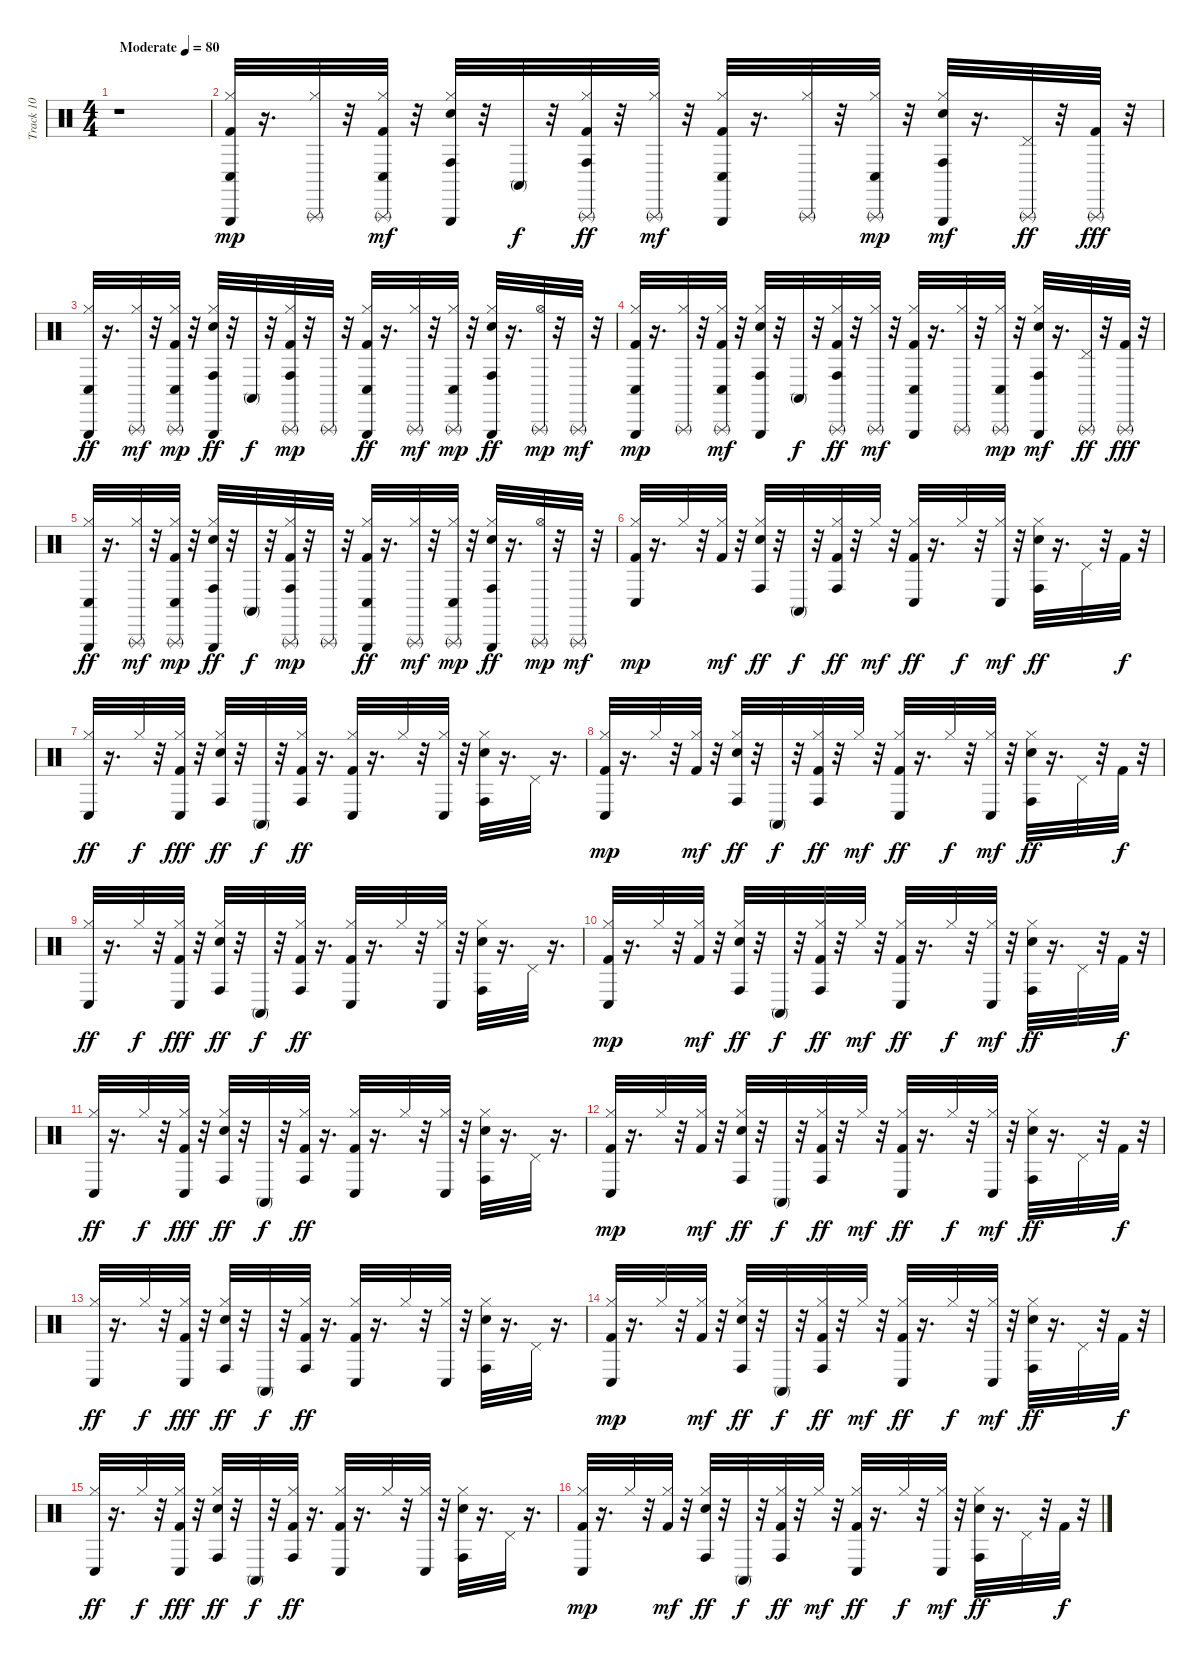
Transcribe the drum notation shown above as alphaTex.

\track ("Track 10" "Track 10") {instrument percussion}
\staff {score}
\articulation defaults
\ts (4 4)
\tempo (80 "Moderate")
\clef neutral
\ks c
r.1{dy mp} |
("Hi-Hat (closed)" "Kick (hit) 2" "Conga low (hit)" "Triangle (hit)").32 r.16{d} ("Triangle (rnute)" "Hi-Hat (closed)").32 r.32 ("Triangle (rnute)" "Conga low (hit)" "Kick (hit) 2" "Hi-Hat (closed)").32{dy mf} r.32 ("Conga high (hit)" "Snare (hit) 2" "Hi-Hat (closed)" "Triangle (hit)").32 r.32 "Conga high (mute)".32{dy f} r.32 ("Triangle (rnute)" "Conga high (hit)" "Kick (hit) 2" "Hi-Hat (closed)").32{dy ff} r.32 ("Triangle (rnute)" "Hi-Hat (closed)").32{dy mf} r.32 ("Conga low (hit)" "Kick (hit) 2" "Hi-Hat (closed)" "Triangle (hit)").32 r.16{d} ("Triangle (rnute)" "Hi-Hat (closed)").32 r.32 ("Conga low (hit)" "Hi-Hat (closed)" "Triangle (rnute)").32{dy mp} r.32 ("Conga high (hit)" "Snare (hit) 2" "Hi-Hat (closed)" "Triangle (hit)").32{dy mf} r.16{d} ("Triangle (rnute)" "Pedal Hi-Hat (hit)").32{dy ff} r.32 ("Triangle (rnute)" "Kick (hit) 2").32{dy fff} r.32 |
("Triangle (hit)" "Conga low (hit)" "Hi-Hat (closed)").32{dy ff} r.16{d} ("Triangle (rnute)" "Hi-Hat (closed)").32{dy mf} r.32 ("Conga low (hit)" "Kick (hit) 2" "Hi-Hat (closed)" "Triangle (rnute)").32{dy mp} r.32 ("Triangle (hit)" "Conga high (hit)" "Snare (hit) 2" "Hi-Hat (closed)").32{dy ff} r.32 "Conga high (mute)".32{dy f} r.32 ("Hi-Hat (closed)" "Conga high (hit)" "Kick (hit) 2" "Triangle (rnute)").32{dy mp} r.32 "Triangle (rnute)".32 r.32 ("Triangle (hit)" "Conga low (hit)" "Kick (hit) 2" "Hi-Hat (closed)").32{dy ff} r.16{d} ("Hi-Hat (closed)" "Triangle (rnute)").32{dy mf} r.32 ("Conga low (hit)" "Hi-Hat (closed)" "Triangle (rnute)").32{dy mp} r.32 ("Triangle (hit)" "Conga high (hit)" "Snare (hit) 2" "Hi-Hat (closed)").32{dy ff} r.16{d} ("Triangle (rnute)" "Hi-Hat (open)").32{dy mp} r.32 "Triangle (rnute)".32{dy mf} r.32 |
("Hi-Hat (closed)" "Kick (hit) 2" "Conga low (hit)" "Triangle (hit)").32{dy mp} r.16{d} ("Triangle (rnute)" "Hi-Hat (closed)").32 r.32 ("Triangle (rnute)" "Conga low (hit)" "Kick (hit) 2" "Hi-Hat (closed)").32{dy mf} r.32 ("Conga high (hit)" "Snare (hit) 2" "Hi-Hat (closed)" "Triangle (hit)").32 r.32 "Conga high (mute)".32{dy f} r.32 ("Triangle (rnute)" "Conga high (hit)" "Kick (hit) 2" "Hi-Hat (closed)").32{dy ff} r.32 ("Triangle (rnute)" "Hi-Hat (closed)").32{dy mf} r.32 ("Conga low (hit)" "Kick (hit) 2" "Hi-Hat (closed)" "Triangle (hit)").32 r.16{d} ("Triangle (rnute)" "Hi-Hat (closed)").32 r.32 ("Conga low (hit)" "Hi-Hat (closed)" "Triangle (rnute)").32{dy mp} r.32 ("Conga high (hit)" "Snare (hit) 2" "Hi-Hat (closed)" "Triangle (hit)").32{dy mf} r.16{d} ("Triangle (rnute)" "Pedal Hi-Hat (hit)").32{dy ff} r.32 ("Triangle (rnute)" "Kick (hit) 2").32{dy fff} r.32 |
("Triangle (hit)" "Conga low (hit)" "Hi-Hat (closed)").32{dy ff} r.16{d} ("Triangle (rnute)" "Hi-Hat (closed)").32{dy mf} r.32 ("Conga low (hit)" "Kick (hit) 2" "Hi-Hat (closed)" "Triangle (rnute)").32{dy mp} r.32 ("Triangle (hit)" "Conga high (hit)" "Snare (hit) 2" "Hi-Hat (closed)").32{dy ff} r.32 "Conga high (mute)".32{dy f} r.32 ("Hi-Hat (closed)" "Conga high (hit)" "Kick (hit) 2" "Triangle (rnute)").32{dy mp} r.32 "Triangle (rnute)".32 r.32 ("Triangle (hit)" "Conga low (hit)" "Kick (hit) 2" "Hi-Hat (closed)").32{dy ff} r.16{d} ("Hi-Hat (closed)" "Triangle (rnute)").32{dy mf} r.32 ("Conga low (hit)" "Hi-Hat (closed)" "Triangle (rnute)").32{dy mp} r.32 ("Triangle (hit)" "Conga high (hit)" "Snare (hit) 2" "Hi-Hat (closed)").32{dy ff} r.16{d} ("Triangle (rnute)" "Hi-Hat (open)").32{dy mp} r.32 "Triangle (rnute)".32{dy mf} r.32 |
("Hi-Hat (closed)" "Kick (hit) 2" "Conga low (hit)").32{dy mp} r.16{d} "Hi-Hat (closed)".32 r.32 ("Kick (hit) 2" "Hi-Hat (closed)").32{dy mf} r.32 ("Conga high (hit)" "Snare (hit) 2" "Hi-Hat (closed)").32{dy ff} r.32 "Conga high (mute)".32{dy f} r.32 ("Conga high (hit)" "Kick (hit) 2" "Hi-Hat (closed)").32{dy ff} r.32 "Hi-Hat (closed)".32{dy mf} r.32 ("Conga low (hit)" "Kick (hit) 2" "Hi-Hat (closed)").32{dy ff} r.16{d} "Hi-Hat (closed)".32{dy f} r.32 ("Conga low (hit)" "Hi-Hat (closed)").32{dy mf} r.32 ("Conga high (hit)" "Snare (hit) 2" "Hi-Hat (closed)").32{dy ff} r.16{d} "Pedal Hi-Hat (hit)".32 r.32 "Kick (hit) 2".32{dy f} r.32 |
("Conga low (hit)" "Hi-Hat (closed)").32{dy ff} r.16{d} "Hi-Hat (closed)".32{dy f} r.32 ("Conga low (hit)" "Kick (hit) 2" "Hi-Hat (closed)").32{dy fff} r.32 ("Conga high (hit)" "Snare (hit) 2" "Hi-Hat (closed)").32{dy ff} r.32 "Conga high (mute)".32{dy f} r.32 ("Hi-Hat (closed)" "Conga high (hit)" "Kick (hit) 2").32{dy ff} r.16{d} ("Conga low (hit)" "Kick (hit) 2" "Hi-Hat (closed)").32 r.16{d} "Hi-Hat (closed)".32 r.32 ("Conga low (hit)" "Hi-Hat (closed)").32 r.32 ("Conga high (hit)" "Snare (hit) 2" "Hi-Hat (closed)").32 r.16{d} "Pedal Hi-Hat (hit)".32 r.16{d} |
("Hi-Hat (closed)" "Kick (hit) 2" "Conga low (hit)").32{dy mp} r.16{d} "Hi-Hat (closed)".32 r.32 ("Kick (hit) 2" "Hi-Hat (closed)").32{dy mf} r.32 ("Conga high (hit)" "Snare (hit) 2" "Hi-Hat (closed)").32{dy ff} r.32 "Conga high (mute)".32{dy f} r.32 ("Conga high (hit)" "Kick (hit) 2" "Hi-Hat (closed)").32{dy ff} r.32 "Hi-Hat (closed)".32{dy mf} r.32 ("Conga low (hit)" "Kick (hit) 2" "Hi-Hat (closed)").32{dy ff} r.16{d} "Hi-Hat (closed)".32{dy f} r.32 ("Conga low (hit)" "Hi-Hat (closed)").32{dy mf} r.32 ("Conga high (hit)" "Snare (hit) 2" "Hi-Hat (closed)").32{dy ff} r.16{d} "Pedal Hi-Hat (hit)".32 r.32 "Kick (hit) 2".32{dy f} r.32 |
("Conga low (hit)" "Hi-Hat (closed)").32{dy ff} r.16{d} "Hi-Hat (closed)".32{dy f} r.32 ("Conga low (hit)" "Kick (hit) 2" "Hi-Hat (closed)").32{dy fff} r.32 ("Conga high (hit)" "Snare (hit) 2" "Hi-Hat (closed)").32{dy ff} r.32 "Conga high (mute)".32{dy f} r.32 ("Hi-Hat (closed)" "Conga high (hit)" "Kick (hit) 2").32{dy ff} r.16{d} ("Conga low (hit)" "Kick (hit) 2" "Hi-Hat (closed)").32 r.16{d} "Hi-Hat (closed)".32 r.32 ("Conga low (hit)" "Hi-Hat (closed)").32 r.32 ("Conga high (hit)" "Snare (hit) 2" "Hi-Hat (closed)").32 r.16{d} "Pedal Hi-Hat (hit)".32 r.16{d} |
("Hi-Hat (closed)" "Kick (hit) 2" "Conga low (hit)").32{dy mp} r.16{d} "Hi-Hat (closed)".32 r.32 ("Kick (hit) 2" "Hi-Hat (closed)").32{dy mf} r.32 ("Conga high (hit)" "Snare (hit) 2" "Hi-Hat (closed)").32{dy ff} r.32 "Conga high (mute)".32{dy f} r.32 ("Conga high (hit)" "Kick (hit) 2" "Hi-Hat (closed)").32{dy ff} r.32 "Hi-Hat (closed)".32{dy mf} r.32 ("Conga low (hit)" "Kick (hit) 2" "Hi-Hat (closed)").32{dy ff} r.16{d} "Hi-Hat (closed)".32{dy f} r.32 ("Conga low (hit)" "Hi-Hat (closed)").32{dy mf} r.32 ("Conga high (hit)" "Snare (hit) 2" "Hi-Hat (closed)").32{dy ff} r.16{d} "Pedal Hi-Hat (hit)".32 r.32 "Kick (hit) 2".32{dy f} r.32 |
("Conga low (hit)" "Hi-Hat (closed)").32{dy ff} r.16{d} "Hi-Hat (closed)".32{dy f} r.32 ("Conga low (hit)" "Kick (hit) 2" "Hi-Hat (closed)").32{dy fff} r.32 ("Conga high (hit)" "Snare (hit) 2" "Hi-Hat (closed)").32{dy ff} r.32 "Conga high (mute)".32{dy f} r.32 ("Hi-Hat (closed)" "Conga high (hit)" "Kick (hit) 2").32{dy ff} r.16{d} ("Conga low (hit)" "Kick (hit) 2" "Hi-Hat (closed)").32 r.16{d} "Hi-Hat (closed)".32 r.32 ("Conga low (hit)" "Hi-Hat (closed)").32 r.32 ("Conga high (hit)" "Snare (hit) 2" "Hi-Hat (closed)").32 r.16{d} "Pedal Hi-Hat (hit)".32 r.16{d} |
("Hi-Hat (closed)" "Kick (hit) 2" "Conga low (hit)").32{dy mp} r.16{d} "Hi-Hat (closed)".32 r.32 ("Kick (hit) 2" "Hi-Hat (closed)").32{dy mf} r.32 ("Conga high (hit)" "Snare (hit) 2" "Hi-Hat (closed)").32{dy ff} r.32 "Conga high (mute)".32{dy f} r.32 ("Conga high (hit)" "Kick (hit) 2" "Hi-Hat (closed)").32{dy ff} r.32 "Hi-Hat (closed)".32{dy mf} r.32 ("Conga low (hit)" "Kick (hit) 2" "Hi-Hat (closed)").32{dy ff} r.16{d} "Hi-Hat (closed)".32{dy f} r.32 ("Conga low (hit)" "Hi-Hat (closed)").32{dy mf} r.32 ("Conga high (hit)" "Snare (hit) 2" "Hi-Hat (closed)").32{dy ff} r.16{d} "Pedal Hi-Hat (hit)".32 r.32 "Kick (hit) 2".32{dy f} r.32 |
("Conga low (hit)" "Hi-Hat (closed)").32{dy ff} r.16{d} "Hi-Hat (closed)".32{dy f} r.32 ("Conga low (hit)" "Kick (hit) 2" "Hi-Hat (closed)").32{dy fff} r.32 ("Conga high (hit)" "Snare (hit) 2" "Hi-Hat (closed)").32{dy ff} r.32 "Conga high (mute)".32{dy f} r.32 ("Hi-Hat (closed)" "Conga high (hit)" "Kick (hit) 2").32{dy ff} r.16{d} ("Conga low (hit)" "Kick (hit) 2" "Hi-Hat (closed)").32 r.16{d} "Hi-Hat (closed)".32 r.32 ("Conga low (hit)" "Hi-Hat (closed)").32 r.32 ("Conga high (hit)" "Snare (hit) 2" "Hi-Hat (closed)").32 r.16{d} "Pedal Hi-Hat (hit)".32 r.16{d} |
("Hi-Hat (closed)" "Kick (hit) 2" "Conga low (hit)").32{dy mp} r.16{d} "Hi-Hat (closed)".32 r.32 ("Kick (hit) 2" "Hi-Hat (closed)").32{dy mf} r.32 ("Conga high (hit)" "Snare (hit) 2" "Hi-Hat (closed)").32{dy ff} r.32 "Conga high (mute)".32{dy f} r.32 ("Conga high (hit)" "Kick (hit) 2" "Hi-Hat (closed)").32{dy ff} r.32 "Hi-Hat (closed)".32{dy mf} r.32 ("Conga low (hit)" "Kick (hit) 2" "Hi-Hat (closed)").32{dy ff} r.16{d} "Hi-Hat (closed)".32{dy f} r.32 ("Conga low (hit)" "Hi-Hat (closed)").32{dy mf} r.32 ("Conga high (hit)" "Snare (hit) 2" "Hi-Hat (closed)").32{dy ff} r.16{d} "Pedal Hi-Hat (hit)".32 r.32 "Kick (hit) 2".32{dy f} r.32 |
("Conga low (hit)" "Hi-Hat (closed)").32{dy ff} r.16{d} "Hi-Hat (closed)".32{dy f} r.32 ("Conga low (hit)" "Kick (hit) 2" "Hi-Hat (closed)").32{dy fff} r.32 ("Conga high (hit)" "Snare (hit) 2" "Hi-Hat (closed)").32{dy ff} r.32 "Conga high (mute)".32{dy f} r.32 ("Hi-Hat (closed)" "Conga high (hit)" "Kick (hit) 2").32{dy ff} r.16{d} ("Conga low (hit)" "Kick (hit) 2" "Hi-Hat (closed)").32 r.16{d} "Hi-Hat (closed)".32 r.32 ("Conga low (hit)" "Hi-Hat (closed)").32 r.32 ("Conga high (hit)" "Snare (hit) 2" "Hi-Hat (closed)").32 r.16{d} "Pedal Hi-Hat (hit)".32 r.16{d} |
("Hi-Hat (closed)" "Kick (hit) 2" "Conga low (hit)").32{dy mp} r.16{d} "Hi-Hat (closed)".32 r.32 ("Kick (hit) 2" "Hi-Hat (closed)").32{dy mf} r.32 ("Conga high (hit)" "Snare (hit) 2" "Hi-Hat (closed)").32{dy ff} r.32 "Conga high (mute)".32{dy f} r.32 ("Conga high (hit)" "Kick (hit) 2" "Hi-Hat (closed)").32{dy ff} r.32 "Hi-Hat (closed)".32{dy mf} r.32 ("Conga low (hit)" "Kick (hit) 2" "Hi-Hat (closed)").32{dy ff} r.16{d} "Hi-Hat (closed)".32{dy f} r.32 ("Conga low (hit)" "Hi-Hat (closed)").32{dy mf} r.32 ("Conga high (hit)" "Snare (hit) 2" "Hi-Hat (closed)").32{dy ff} r.16{d} "Pedal Hi-Hat (hit)".32 r.32 "Kick (hit) 2".32{dy f} r.32
